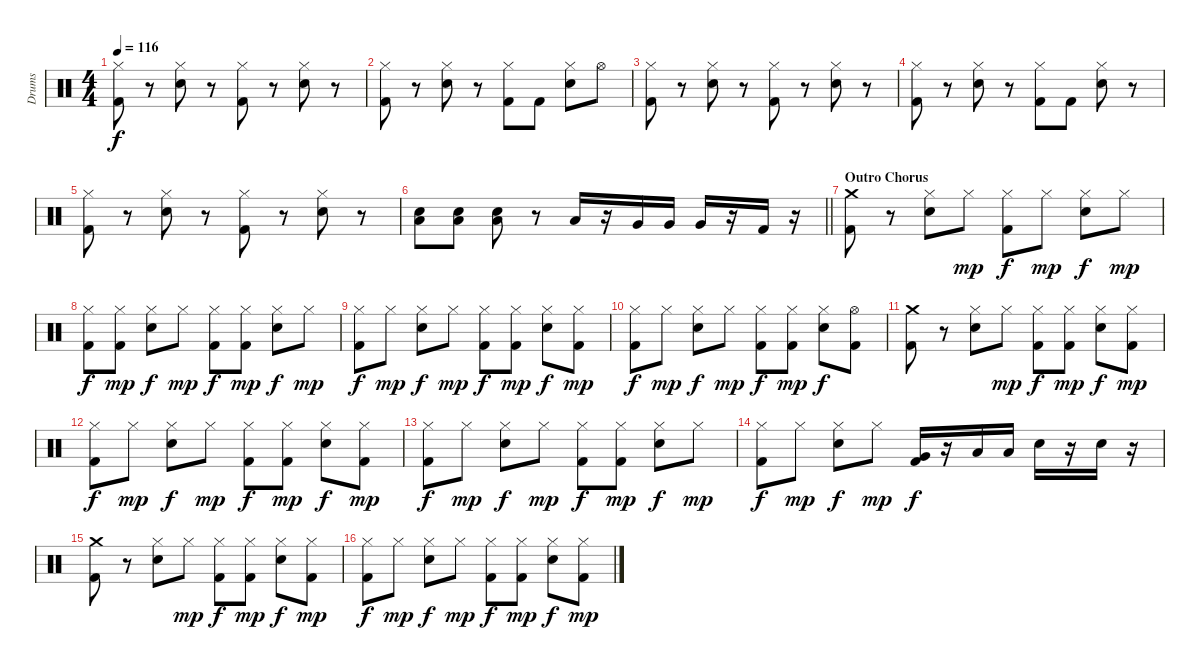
\track ("Drums" "Drums") {instrument percussion}
\staff {score}
\articulation defaults
\ts (4 4)
\tempo 116
\clef neutral
\ks c
("Hi-Hat (closed)" "Kick (hit) 2").8{dy f} r.8 ("Hi-Hat (closed)" "Snare (hit) 2").8 r.8 ("Hi-Hat (closed)" "Kick (hit) 2").8 r.8 ("Hi-Hat (closed)" "Snare (hit) 2").8 r.8 |
("Hi-Hat (closed)" "Kick (hit) 2").8 r.8 ("Hi-Hat (closed)" "Snare (hit) 2").8 r.8 ("Hi-Hat (closed)" "Kick (hit) 2").8 "Kick (hit) 2".8 ("Hi-Hat (closed)" "Snare (hit) 2").8 "Hi-Hat (open)".8 |
("Hi-Hat (closed)" "Kick (hit) 2").8 r.8 ("Hi-Hat (closed)" "Snare (hit) 2").8 r.8 ("Hi-Hat (closed)" "Kick (hit) 2").8 r.8 ("Hi-Hat (closed)" "Snare (hit) 2").8 r.8 |
("Hi-Hat (closed)" "Kick (hit) 2").8 r.8 ("Hi-Hat (closed)" "Snare (hit) 2").8 r.8 ("Hi-Hat (closed)" "Kick (hit) 2").8 "Kick (hit) 2".8 ("Hi-Hat (closed)" "Snare (hit) 2").8 r.8 |
("Hi-Hat (closed)" "Kick (hit) 2").8 r.8 ("Hi-Hat (closed)" "Snare (hit) 2").8 r.8 ("Hi-Hat (closed)" "Kick (hit) 2").8 r.8 ("Hi-Hat (closed)" "Snare (hit) 2").8 r.8 |
\barLineRight lightlight
("Snare (hit) 2" "Low Floor Tom (hit)").8 ("Snare (hit) 2" "Low Floor Tom (hit)").8 ("Snare (hit) 2" "Low Floor Tom (hit)").8 r.8 "Low Tom (hit)".16 r.16 "Very Low Tom (hit)".16 "Very Low Tom (hit)".16 "Very Low Tom (hit)".16 r.16 "Kick (hit) 2".16 r.16 |
\section ("" "Outro Chorus")
("Crash medium (hit)" "Kick (hit) 2").8 r.8 ("Hi-Hat (closed)" "Snare (hit) 2").8 "Hi-Hat (closed)".8{dy mp} ("Hi-Hat (closed)" "Kick (hit) 2").8{dy f} "Hi-Hat (closed)".8{dy mp} ("Hi-Hat (closed)" "Snare (hit) 2").8{dy f} "Hi-Hat (closed)".8{dy mp} |
("Hi-Hat (closed)" "Kick (hit) 2").8{dy f} ("Hi-Hat (closed)" "Kick (hit) 2").8{dy mp} ("Hi-Hat (closed)" "Snare (hit) 2").8{dy f} "Hi-Hat (closed)".8{dy mp} ("Hi-Hat (closed)" "Kick (hit) 2").8{dy f} ("Hi-Hat (closed)" "Kick (hit) 2").8{dy mp} ("Hi-Hat (closed)" "Snare (hit) 2").8{dy f} "Hi-Hat (closed)".8{dy mp} |
("Hi-Hat (closed)" "Kick (hit) 2").8{dy f} "Hi-Hat (closed)".8{dy mp} ("Hi-Hat (closed)" "Snare (hit) 2").8{dy f} "Hi-Hat (closed)".8{dy mp} ("Hi-Hat (closed)" "Kick (hit) 2").8{dy f} ("Hi-Hat (closed)" "Kick (hit) 2").8{dy mp} ("Hi-Hat (closed)" "Snare (hit) 2").8{dy f} ("Hi-Hat (closed)" "Kick (hit) 2").8{dy mp} |
("Hi-Hat (closed)" "Kick (hit) 2").8{dy f} "Hi-Hat (closed)".8{dy mp} ("Hi-Hat (closed)" "Snare (hit) 2").8{dy f} "Hi-Hat (closed)".8{dy mp} ("Hi-Hat (closed)" "Kick (hit) 2").8{dy f} ("Hi-Hat (closed)" "Kick (hit) 2").8{dy mp} ("Hi-Hat (closed)" "Snare (hit) 2").8{dy f} ("Hi-Hat (open)" "Kick (hit) 2").8 |
("Crash medium (hit)" "Kick (hit) 2").8 r.8 ("Hi-Hat (closed)" "Snare (hit) 2").8 "Hi-Hat (closed)".8{dy mp} ("Hi-Hat (closed)" "Kick (hit) 2").8{dy f} ("Hi-Hat (closed)" "Kick (hit) 2").8{dy mp} ("Hi-Hat (closed)" "Snare (hit) 2").8{dy f} ("Hi-Hat (closed)" "Kick (hit) 2").8{dy mp} |
("Hi-Hat (closed)" "Kick (hit) 2").8{dy f} "Hi-Hat (closed)".8{dy mp} ("Hi-Hat (closed)" "Snare (hit) 2").8{dy f} "Hi-Hat (closed)".8{dy mp} ("Hi-Hat (closed)" "Kick (hit) 2").8{dy f} ("Hi-Hat (closed)" "Kick (hit) 2").8{dy mp} ("Hi-Hat (closed)" "Snare (hit) 2").8{dy f} ("Hi-Hat (closed)" "Kick (hit) 2").8{dy mp} |
("Hi-Hat (closed)" "Kick (hit) 2").8{dy f} "Hi-Hat (closed)".8{dy mp} ("Hi-Hat (closed)" "Snare (hit) 2").8{dy f} "Hi-Hat (closed)".8{dy mp} ("Hi-Hat (closed)" "Kick (hit) 2").8{dy f} ("Hi-Hat (closed)" "Kick (hit) 2").8{dy mp} ("Hi-Hat (closed)" "Snare (hit) 2").8{dy f} "Hi-Hat (closed)".8{dy mp} |
("Hi-Hat (closed)" "Kick (hit) 2").8{dy f} "Hi-Hat (closed)".8{dy mp} ("Hi-Hat (closed)" "Snare (hit) 2").8{dy f} "Hi-Hat (closed)".8{dy mp} ("Very Low Tom (hit)" "Kick (hit) 2").16{dy f} r.16 "Low Tom (hit)".16 "Low Tom (hit)".16 "Snare (hit) 2".16 r.16 "Snare (hit) 2".16 r.16 |
("Crash medium (hit)" "Kick (hit) 2").8 r.8 ("Hi-Hat (closed)" "Snare (hit) 2").8 "Hi-Hat (closed)".8{dy mp} ("Hi-Hat (closed)" "Kick (hit) 2").8{dy f} ("Hi-Hat (closed)" "Kick (hit) 2").8{dy mp} ("Hi-Hat (closed)" "Snare (hit) 2").8{dy f} ("Hi-Hat (closed)" "Kick (hit) 2").8{dy mp} |
("Hi-Hat (closed)" "Kick (hit) 2").8{dy f} "Hi-Hat (closed)".8{dy mp} ("Hi-Hat (closed)" "Snare (hit) 2").8{dy f} "Hi-Hat (closed)".8{dy mp} ("Hi-Hat (closed)" "Kick (hit) 2").8{dy f} ("Hi-Hat (closed)" "Kick (hit) 2").8{dy mp} ("Hi-Hat (closed)" "Snare (hit) 2").8{dy f} ("Hi-Hat (closed)" "Kick (hit) 2").8{dy mp}
